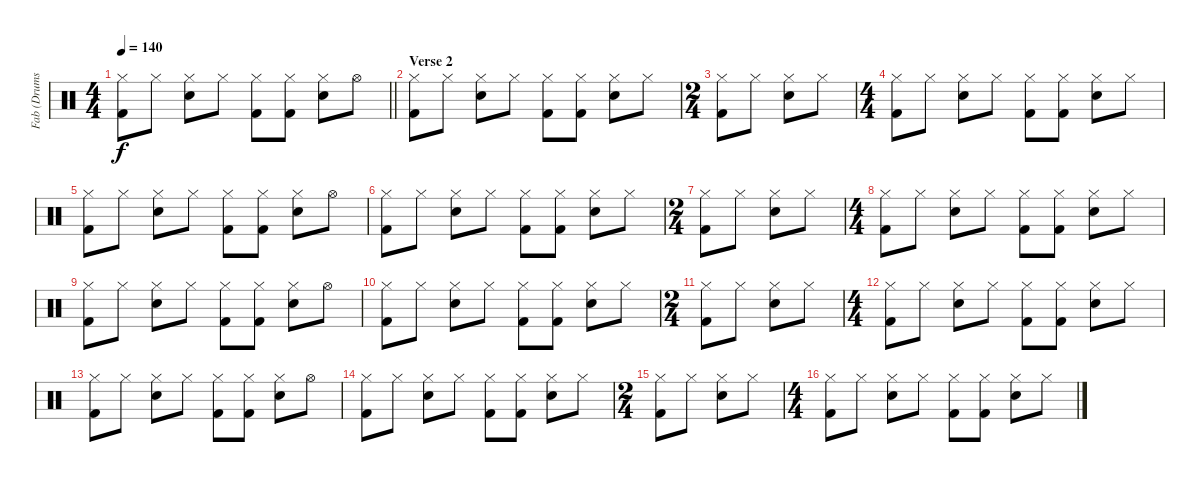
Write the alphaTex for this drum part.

\track ("Fab (Drums)" "Fab (Drums") {instrument percussion}
\staff {score}
\articulation defaults
\ts (4 4)
\tempo 140
\clef neutral
\barLineRight lightlight
\ks c
("Hi-Hat (closed)" "Kick (hit) 2").8{dy f} "Hi-Hat (closed)".8 ("Hi-Hat (closed)" "Snare (hit) 2").8 "Hi-Hat (closed)".8 ("Hi-Hat (closed)" "Kick (hit) 2").8 ("Hi-Hat (closed)" "Kick (hit) 2").8 ("Hi-Hat (closed)" "Snare (hit) 2").8 "Hi-Hat (open)".8 |
\section ("" "Verse 2")
("Hi-Hat (closed)" "Kick (hit) 2").8 "Hi-Hat (closed)".8 ("Hi-Hat (closed)" "Snare (hit) 2").8 "Hi-Hat (closed)".8 ("Hi-Hat (closed)" "Kick (hit) 2").8 ("Hi-Hat (closed)" "Kick (hit) 2").8 ("Hi-Hat (closed)" "Snare (hit) 2").8 "Hi-Hat (closed)".8 |
\ts (2 4)
("Hi-Hat (closed)" "Kick (hit) 2").8 "Hi-Hat (closed)".8 ("Hi-Hat (closed)" "Snare (hit) 2").8 "Hi-Hat (closed)".8 |
\ts (4 4)
("Hi-Hat (closed)" "Kick (hit) 2").8 "Hi-Hat (closed)".8 ("Hi-Hat (closed)" "Snare (hit) 2").8 "Hi-Hat (closed)".8 ("Hi-Hat (closed)" "Kick (hit) 2").8 ("Hi-Hat (closed)" "Kick (hit) 2").8 ("Hi-Hat (closed)" "Snare (hit) 2").8 "Hi-Hat (closed)".8 |
("Hi-Hat (closed)" "Kick (hit) 2").8 "Hi-Hat (closed)".8 ("Hi-Hat (closed)" "Snare (hit) 2").8 "Hi-Hat (closed)".8 ("Hi-Hat (closed)" "Kick (hit) 2").8 ("Hi-Hat (closed)" "Kick (hit) 2").8 ("Hi-Hat (closed)" "Snare (hit) 2").8 "Hi-Hat (open)".8 |
("Hi-Hat (closed)" "Kick (hit) 2").8 "Hi-Hat (closed)".8 ("Hi-Hat (closed)" "Snare (hit) 2").8 "Hi-Hat (closed)".8 ("Hi-Hat (closed)" "Kick (hit) 2").8 ("Hi-Hat (closed)" "Kick (hit) 2").8 ("Hi-Hat (closed)" "Snare (hit) 2").8 "Hi-Hat (closed)".8 |
\ts (2 4)
("Hi-Hat (closed)" "Kick (hit) 2").8 "Hi-Hat (closed)".8 ("Hi-Hat (closed)" "Snare (hit) 2").8 "Hi-Hat (closed)".8 |
\ts (4 4)
("Hi-Hat (closed)" "Kick (hit) 2").8 "Hi-Hat (closed)".8 ("Hi-Hat (closed)" "Snare (hit) 2").8 "Hi-Hat (closed)".8 ("Hi-Hat (closed)" "Kick (hit) 2").8 ("Hi-Hat (closed)" "Kick (hit) 2").8 ("Hi-Hat (closed)" "Snare (hit) 2").8 "Hi-Hat (closed)".8 |
("Hi-Hat (closed)" "Kick (hit) 2").8 "Hi-Hat (closed)".8 ("Hi-Hat (closed)" "Snare (hit) 2").8 "Hi-Hat (closed)".8 ("Hi-Hat (closed)" "Kick (hit) 2").8 ("Hi-Hat (closed)" "Kick (hit) 2").8 ("Hi-Hat (closed)" "Snare (hit) 2").8 "Hi-Hat (open)".8 |
("Hi-Hat (closed)" "Kick (hit) 2").8 "Hi-Hat (closed)".8 ("Hi-Hat (closed)" "Snare (hit) 2").8 "Hi-Hat (closed)".8 ("Hi-Hat (closed)" "Kick (hit) 2").8 ("Hi-Hat (closed)" "Kick (hit) 2").8 ("Hi-Hat (closed)" "Snare (hit) 2").8 "Hi-Hat (closed)".8 |
\ts (2 4)
("Hi-Hat (closed)" "Kick (hit) 2").8 "Hi-Hat (closed)".8 ("Hi-Hat (closed)" "Snare (hit) 2").8 "Hi-Hat (closed)".8 |
\ts (4 4)
("Hi-Hat (closed)" "Kick (hit) 2").8 "Hi-Hat (closed)".8 ("Hi-Hat (closed)" "Snare (hit) 2").8 "Hi-Hat (closed)".8 ("Hi-Hat (closed)" "Kick (hit) 2").8 ("Hi-Hat (closed)" "Kick (hit) 2").8 ("Hi-Hat (closed)" "Snare (hit) 2").8 "Hi-Hat (closed)".8 |
("Hi-Hat (closed)" "Kick (hit) 2").8 "Hi-Hat (closed)".8 ("Hi-Hat (closed)" "Snare (hit) 2").8 "Hi-Hat (closed)".8 ("Hi-Hat (closed)" "Kick (hit) 2").8 ("Hi-Hat (closed)" "Kick (hit) 2").8 ("Hi-Hat (closed)" "Snare (hit) 2").8 "Hi-Hat (open)".8 |
("Hi-Hat (closed)" "Kick (hit) 2").8 "Hi-Hat (closed)".8 ("Hi-Hat (closed)" "Snare (hit) 2").8 "Hi-Hat (closed)".8 ("Hi-Hat (closed)" "Kick (hit) 2").8 ("Hi-Hat (closed)" "Kick (hit) 2").8 ("Hi-Hat (closed)" "Snare (hit) 2").8 "Hi-Hat (closed)".8 |
\ts (2 4)
("Hi-Hat (closed)" "Kick (hit) 2").8 "Hi-Hat (closed)".8 ("Hi-Hat (closed)" "Snare (hit) 2").8 "Hi-Hat (closed)".8 |
\ts (4 4)
("Hi-Hat (closed)" "Kick (hit) 2").8 "Hi-Hat (closed)".8 ("Hi-Hat (closed)" "Snare (hit) 2").8 "Hi-Hat (closed)".8 ("Hi-Hat (closed)" "Kick (hit) 2").8 ("Hi-Hat (closed)" "Kick (hit) 2").8 ("Hi-Hat (closed)" "Snare (hit) 2").8 "Hi-Hat (closed)".8
